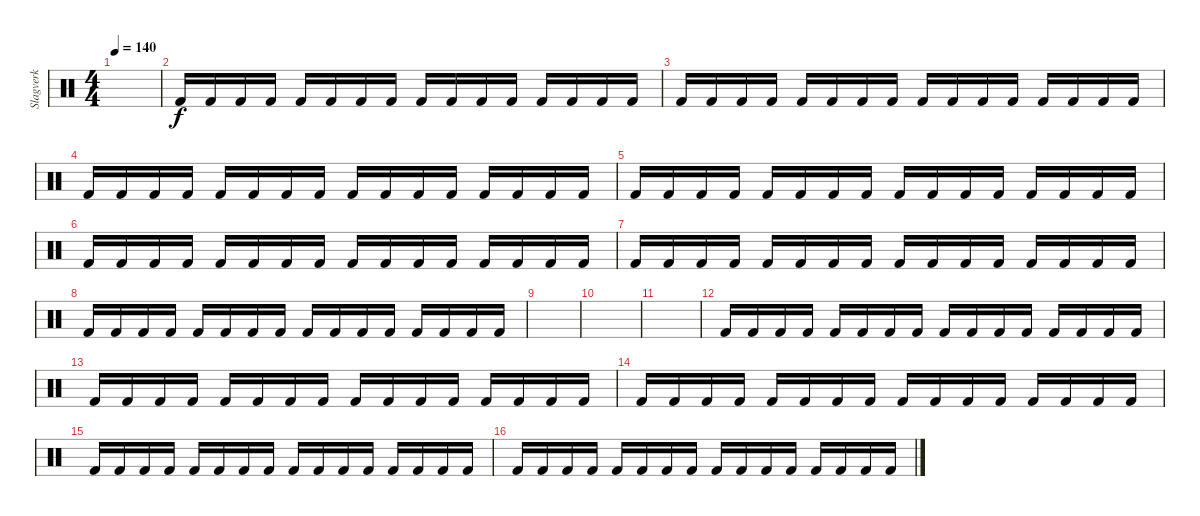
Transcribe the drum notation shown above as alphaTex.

\track ("Slagverk" "Slagverk") {instrument percussion}
\staff {score}
\articulation defaults
\ts (4 4)
\tempo 140
\clef neutral
\ks c
|
"Kick (hit) 2".16 "Kick (hit) 2".16 "Kick (hit) 2".16 "Kick (hit) 2".16 "Kick (hit) 2".16 "Kick (hit) 2".16 "Kick (hit) 2".16 "Kick (hit) 2".16 "Kick (hit) 2".16 "Kick (hit) 2".16 "Kick (hit) 2".16 "Kick (hit) 2".16 "Kick (hit) 2".16 "Kick (hit) 2".16 "Kick (hit) 2".16 "Kick (hit) 2".16 |
"Kick (hit) 2".16 "Kick (hit) 2".16 "Kick (hit) 2".16 "Kick (hit) 2".16 "Kick (hit) 2".16 "Kick (hit) 2".16 "Kick (hit) 2".16 "Kick (hit) 2".16 "Kick (hit) 2".16 "Kick (hit) 2".16 "Kick (hit) 2".16 "Kick (hit) 2".16 "Kick (hit) 2".16 "Kick (hit) 2".16 "Kick (hit) 2".16 "Kick (hit) 2".16 |
"Kick (hit) 2".16 "Kick (hit) 2".16 "Kick (hit) 2".16 "Kick (hit) 2".16 "Kick (hit) 2".16 "Kick (hit) 2".16 "Kick (hit) 2".16 "Kick (hit) 2".16 "Kick (hit) 2".16 "Kick (hit) 2".16 "Kick (hit) 2".16 "Kick (hit) 2".16 "Kick (hit) 2".16 "Kick (hit) 2".16 "Kick (hit) 2".16 "Kick (hit) 2".16 |
"Kick (hit) 2".16 "Kick (hit) 2".16 "Kick (hit) 2".16 "Kick (hit) 2".16 "Kick (hit) 2".16 "Kick (hit) 2".16 "Kick (hit) 2".16 "Kick (hit) 2".16 "Kick (hit) 2".16 "Kick (hit) 2".16 "Kick (hit) 2".16 "Kick (hit) 2".16 "Kick (hit) 2".16 "Kick (hit) 2".16 "Kick (hit) 2".16 "Kick (hit) 2".16 |
"Kick (hit) 2".16 "Kick (hit) 2".16 "Kick (hit) 2".16 "Kick (hit) 2".16 "Kick (hit) 2".16 "Kick (hit) 2".16 "Kick (hit) 2".16 "Kick (hit) 2".16 "Kick (hit) 2".16 "Kick (hit) 2".16 "Kick (hit) 2".16 "Kick (hit) 2".16 "Kick (hit) 2".16 "Kick (hit) 2".16 "Kick (hit) 2".16 "Kick (hit) 2".16 |
"Kick (hit) 2".16 "Kick (hit) 2".16 "Kick (hit) 2".16 "Kick (hit) 2".16 "Kick (hit) 2".16 "Kick (hit) 2".16 "Kick (hit) 2".16 "Kick (hit) 2".16 "Kick (hit) 2".16 "Kick (hit) 2".16 "Kick (hit) 2".16 "Kick (hit) 2".16 "Kick (hit) 2".16 "Kick (hit) 2".16 "Kick (hit) 2".16 "Kick (hit) 2".16 |
"Kick (hit) 2".16 "Kick (hit) 2".16 "Kick (hit) 2".16 "Kick (hit) 2".16 "Kick (hit) 2".16 "Kick (hit) 2".16 "Kick (hit) 2".16 "Kick (hit) 2".16 "Kick (hit) 2".16 "Kick (hit) 2".16 "Kick (hit) 2".16 "Kick (hit) 2".16 "Kick (hit) 2".16 "Kick (hit) 2".16 "Kick (hit) 2".16 "Kick (hit) 2".16 |
|
|
|
"Kick (hit) 2".16 "Kick (hit) 2".16 "Kick (hit) 2".16 "Kick (hit) 2".16 "Kick (hit) 2".16 "Kick (hit) 2".16 "Kick (hit) 2".16 "Kick (hit) 2".16 "Kick (hit) 2".16 "Kick (hit) 2".16 "Kick (hit) 2".16 "Kick (hit) 2".16 "Kick (hit) 2".16 "Kick (hit) 2".16 "Kick (hit) 2".16 "Kick (hit) 2".16 |
"Kick (hit) 2".16 "Kick (hit) 2".16 "Kick (hit) 2".16 "Kick (hit) 2".16 "Kick (hit) 2".16 "Kick (hit) 2".16 "Kick (hit) 2".16 "Kick (hit) 2".16 "Kick (hit) 2".16 "Kick (hit) 2".16 "Kick (hit) 2".16 "Kick (hit) 2".16 "Kick (hit) 2".16 "Kick (hit) 2".16 "Kick (hit) 2".16 "Kick (hit) 2".16 |
"Kick (hit) 2".16 "Kick (hit) 2".16 "Kick (hit) 2".16 "Kick (hit) 2".16 "Kick (hit) 2".16 "Kick (hit) 2".16 "Kick (hit) 2".16 "Kick (hit) 2".16 "Kick (hit) 2".16 "Kick (hit) 2".16 "Kick (hit) 2".16 "Kick (hit) 2".16 "Kick (hit) 2".16 "Kick (hit) 2".16 "Kick (hit) 2".16 "Kick (hit) 2".16 |
"Kick (hit) 2".16 "Kick (hit) 2".16 "Kick (hit) 2".16 "Kick (hit) 2".16 "Kick (hit) 2".16 "Kick (hit) 2".16 "Kick (hit) 2".16 "Kick (hit) 2".16 "Kick (hit) 2".16 "Kick (hit) 2".16 "Kick (hit) 2".16 "Kick (hit) 2".16 "Kick (hit) 2".16 "Kick (hit) 2".16 "Kick (hit) 2".16 "Kick (hit) 2".16 |
"Kick (hit) 2".16 "Kick (hit) 2".16 "Kick (hit) 2".16 "Kick (hit) 2".16 "Kick (hit) 2".16 "Kick (hit) 2".16 "Kick (hit) 2".16 "Kick (hit) 2".16 "Kick (hit) 2".16 "Kick (hit) 2".16 "Kick (hit) 2".16 "Kick (hit) 2".16 "Kick (hit) 2".16 "Kick (hit) 2".16 "Kick (hit) 2".16 "Kick (hit) 2".16
